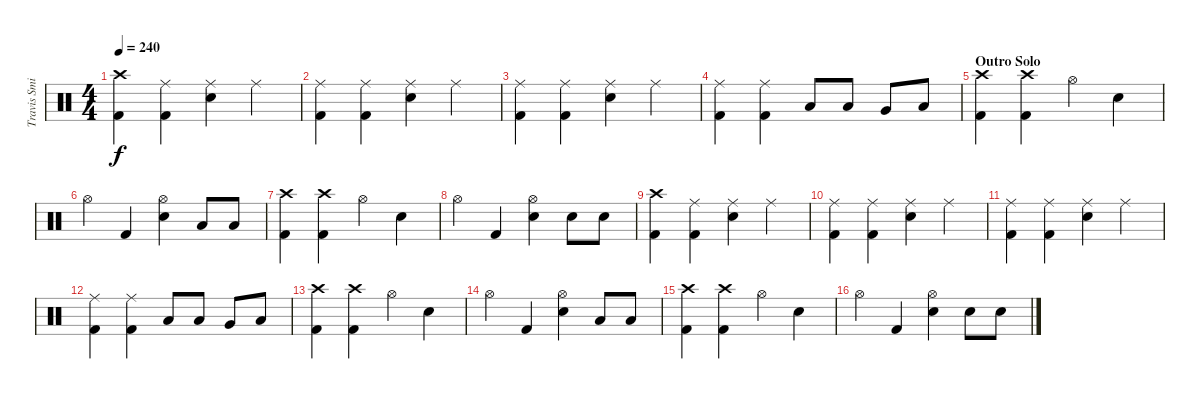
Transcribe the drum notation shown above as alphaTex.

\track ("Travis Smith (Drums)" "Travis Smi") {instrument percussion}
\staff {score}
\articulation defaults
\ts (4 4)
\tempo 240
\clef neutral
\ks c
("Kick (hit) 2" "Crash high (hit)").4{dy f} ("Kick (hit) 2" "Ride (middle)").4 ("Snare (hit) 2" "Ride (middle)").4 "Ride (middle)".4 |
("Kick (hit) 2" "Ride (middle)").4 ("Kick (hit) 2" "Ride (middle)").4 ("Snare (hit) 2" "Ride (middle)").4 "Ride (middle)".4 |
("Kick (hit) 2" "Ride (middle)").4 ("Kick (hit) 2" "Ride (middle)").4 ("Snare (hit) 2" "Ride (middle)").4 "Ride (middle)".4 |
("Kick (hit) 2" "Ride (middle)").4 ("Kick (hit) 2" "Ride (middle)").4 "Low Tom (hit)".8 "Low Tom (hit)".8 "Very Low Tom (hit)".8 "Low Floor Tom (hit)".8 |
\section ("" "Outro Solo")
("Kick (hit) 2" "Crash high (hit)").4 ("Kick (hit) 2" "Crash high (hit)").4 "Hi-Hat (open)".4 "Snare (hit) 2".4 |
"Hi-Hat (open)".4 "Kick (hit) 2".4 ("Snare (hit) 2" "Hi-Hat (open)").4 "Low Tom (hit)".8 "Low Tom (hit)".8 |
("Kick (hit) 2" "Crash high (hit)").4 ("Kick (hit) 2" "Crash high (hit)").4 "Hi-Hat (open)".4 "Snare (hit) 2".4 |
"Hi-Hat (open)".4 "Kick (hit) 2".4 ("Snare (hit) 2" "Hi-Hat (open)").4 "Snare (hit) 2".8 "Snare (hit) 2".8 |
("Kick (hit) 2" "Crash high (hit)").4 ("Kick (hit) 2" "Ride (middle)").4 ("Snare (hit) 2" "Ride (middle)").4 "Ride (middle)".4 |
("Kick (hit) 2" "Ride (middle)").4 ("Kick (hit) 2" "Ride (middle)").4 ("Snare (hit) 2" "Ride (middle)").4 "Ride (middle)".4 |
("Kick (hit) 2" "Ride (middle)").4 ("Kick (hit) 2" "Ride (middle)").4 ("Snare (hit) 2" "Ride (middle)").4 "Ride (middle)".4 |
("Kick (hit) 2" "Ride (middle)").4 ("Kick (hit) 2" "Ride (middle)").4 "Low Tom (hit)".8 "Low Tom (hit)".8 "Very Low Tom (hit)".8 "Low Floor Tom (hit)".8 |
("Kick (hit) 2" "Crash high (hit)").4 ("Kick (hit) 2" "Crash high (hit)").4 "Hi-Hat (open)".4 "Snare (hit) 2".4 |
"Hi-Hat (open)".4 "Kick (hit) 2".4 ("Snare (hit) 2" "Hi-Hat (open)").4 "Low Tom (hit)".8 "Low Tom (hit)".8 |
("Kick (hit) 2" "Crash high (hit)").4 ("Kick (hit) 2" "Crash high (hit)").4 "Hi-Hat (open)".4 "Snare (hit) 2".4 |
"Hi-Hat (open)".4 "Kick (hit) 2".4 ("Snare (hit) 2" "Hi-Hat (open)").4 "Snare (hit) 2".8 "Snare (hit) 2".8
